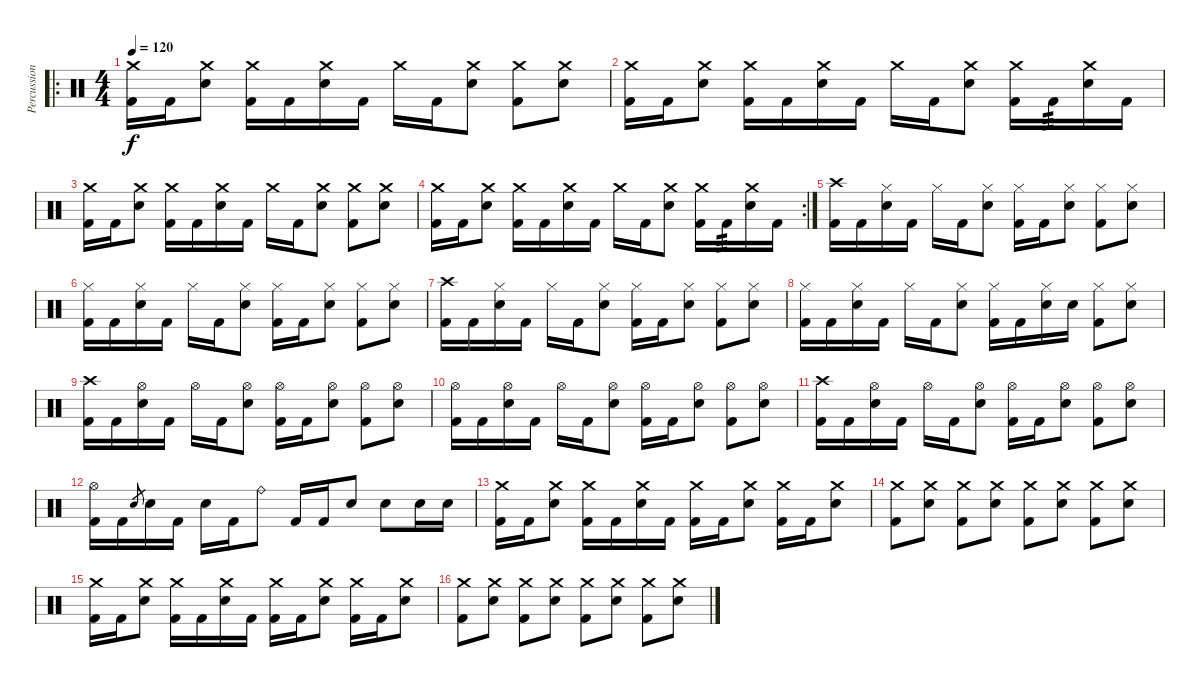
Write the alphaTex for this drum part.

\track ("Percussion" "Percussion") {instrument percussion}
\staff {score}
\articulation defaults
\ro
\ts (4 4)
\tempo 120
\clef neutral
\ks c
("Crash medium (hit)" "Kick (hit) 2").16{dy f} "Kick (hit) 2".16 ("Crash medium (hit)" "Electric Snare (hit)").8 ("Crash medium (hit)" "Kick (hit) 2").16 "Kick (hit) 2".16 ("Crash medium (hit)" "Electric Snare (hit)").16 "Kick (hit) 2".16 "Crash medium (hit)".16 "Kick (hit) 2".16 ("Crash medium (hit)" "Electric Snare (hit)").8 ("Crash medium (hit)" "Kick (hit) 2").8 ("Crash medium (hit)" "Electric Snare (hit)").8 |
("Crash medium (hit)" "Kick (hit) 2").16 "Kick (hit) 2".16 ("Crash medium (hit)" "Electric Snare (hit)").8 ("Crash medium (hit)" "Kick (hit) 2").16 "Kick (hit) 2".16 ("Crash medium (hit)" "Electric Snare (hit)").16 "Kick (hit) 2".16 "Crash medium (hit)".16 "Kick (hit) 2".16 ("Crash medium (hit)" "Electric Snare (hit)").8 ("Crash medium (hit)" "Kick (hit) 2").16 "Kick (hit) 2".16{tp 3} ("Crash medium (hit)" "Electric Snare (hit)").16 "Kick (hit) 2".16 |
("Crash medium (hit)" "Kick (hit) 2").16 "Kick (hit) 2".16 ("Crash medium (hit)" "Electric Snare (hit)").8 ("Crash medium (hit)" "Kick (hit) 2").16 "Kick (hit) 2".16 ("Crash medium (hit)" "Electric Snare (hit)").16 "Kick (hit) 2".16 "Crash medium (hit)".16 "Kick (hit) 2".16 ("Crash medium (hit)" "Electric Snare (hit)").8 ("Crash medium (hit)" "Kick (hit) 2").8 ("Crash medium (hit)" "Electric Snare (hit)").8 |
\rc 2
("Crash medium (hit)" "Kick (hit) 2").16 "Kick (hit) 2".16 ("Crash medium (hit)" "Electric Snare (hit)").8 ("Crash medium (hit)" "Kick (hit) 2").16 "Kick (hit) 2".16 ("Crash medium (hit)" "Electric Snare (hit)").16 "Kick (hit) 2".16 "Crash medium (hit)".16 "Kick (hit) 2".16 ("Crash medium (hit)" "Electric Snare (hit)").8 ("Crash medium (hit)" "Kick (hit) 2").16 "Kick (hit) 2".16{tp 3} ("Crash medium (hit)" "Electric Snare (hit)").16 "Kick (hit) 2".16 |
("Crash high (hit)" "Kick (hit) 2").16 "Kick (hit) 2".16 ("Hi-Hat (closed)" "Electric Snare (hit)").16 "Kick (hit) 2".16 "Hi-Hat (closed)".16 "Kick (hit) 2".16 ("Hi-Hat (closed)" "Electric Snare (hit)").8 ("Hi-Hat (closed)" "Kick (hit) 2").16 "Kick (hit) 2".16 ("Hi-Hat (closed)" "Electric Snare (hit)").8 ("Hi-Hat (closed)" "Kick (hit) 2").8 ("Hi-Hat (closed)" "Electric Snare (hit)").8 |
("Hi-Hat (closed)" "Kick (hit) 2").16 "Kick (hit) 2".16 ("Hi-Hat (closed)" "Electric Snare (hit)").16 "Kick (hit) 2".16 "Hi-Hat (closed)".16 "Kick (hit) 2".16 ("Hi-Hat (closed)" "Electric Snare (hit)").8 ("Hi-Hat (closed)" "Kick (hit) 2").16 "Kick (hit) 2".16 ("Hi-Hat (closed)" "Electric Snare (hit)").8 ("Hi-Hat (closed)" "Kick (hit) 2").8 ("Hi-Hat (closed)" "Electric Snare (hit)").8 |
("Crash high (hit)" "Kick (hit) 2").16 "Kick (hit) 2".16 ("Hi-Hat (closed)" "Electric Snare (hit)").16 "Kick (hit) 2".16 "Hi-Hat (closed)".16 "Kick (hit) 2".16 ("Hi-Hat (closed)" "Electric Snare (hit)").8 ("Hi-Hat (closed)" "Kick (hit) 2").16 "Kick (hit) 2".16 ("Hi-Hat (closed)" "Electric Snare (hit)").8 ("Hi-Hat (closed)" "Kick (hit) 2").8 ("Hi-Hat (closed)" "Electric Snare (hit)").8 |
("Hi-Hat (closed)" "Kick (hit) 2").16 "Kick (hit) 2".16 ("Hi-Hat (closed)" "Electric Snare (hit)").16 "Kick (hit) 2".16 "Hi-Hat (closed)".16 "Kick (hit) 2".16 ("Hi-Hat (closed)" "Electric Snare (hit)").8 ("Hi-Hat (closed)" "Kick (hit) 2").16 "Kick (hit) 2".16 ("Hi-Hat (closed)" "Electric Snare (hit)").16 "Electric Snare (hit)".16 ("Hi-Hat (closed)" "Kick (hit) 2").8 ("Hi-Hat (closed)" "Electric Snare (hit)").8 |
("Crash high (hit)" "Kick (hit) 2").16 "Kick (hit) 2".16 ("Hi-Hat (open)" "Electric Snare (hit)").16 "Kick (hit) 2".16 "Hi-Hat (open)".16 "Kick (hit) 2".16 ("Hi-Hat (open)" "Electric Snare (hit)").8 ("Hi-Hat (open)" "Kick (hit) 2").16 "Kick (hit) 2".16 ("Hi-Hat (open)" "Electric Snare (hit)").8 ("Hi-Hat (open)" "Kick (hit) 2").8 ("Hi-Hat (open)" "Electric Snare (hit)").8 |
("Hi-Hat (open)" "Kick (hit) 2").16 "Kick (hit) 2".16 ("Hi-Hat (open)" "Electric Snare (hit)").16 "Kick (hit) 2".16 "Hi-Hat (open)".16 "Kick (hit) 2".16 ("Hi-Hat (open)" "Electric Snare (hit)").8 ("Hi-Hat (open)" "Kick (hit) 2").16 "Kick (hit) 2".16 ("Hi-Hat (open)" "Electric Snare (hit)").8 ("Hi-Hat (open)" "Kick (hit) 2").8 ("Hi-Hat (open)" "Electric Snare (hit)").8 |
("Crash high (hit)" "Kick (hit) 2").16 "Kick (hit) 2".16 ("Hi-Hat (open)" "Electric Snare (hit)").16 "Kick (hit) 2".16 "Hi-Hat (open)".16 "Kick (hit) 2".16 ("Hi-Hat (open)" "Electric Snare (hit)").8 ("Hi-Hat (open)" "Kick (hit) 2").16 "Kick (hit) 2".16 ("Hi-Hat (open)" "Electric Snare (hit)").8 ("Hi-Hat (open)" "Kick (hit) 2").8 ("Hi-Hat (open)" "Electric Snare (hit)").8 |
("Hi-Hat (open)" "Kick (hit) 2").16 "Kick (hit) 2".16 "Electric Snare (hit)".8{gr} "Electric Snare (hit)".16 "Kick (hit) 2".16 "Electric Snare (hit)".16 "Kick (hit) 2".16 "Ride (bell)".8 "Kick (hit) 2".16 "Kick (hit) 2".16 "Electric Snare (hit)".8 "Electric Snare (hit)".8 "Electric Snare (hit)".16 "Electric Snare (hit)".16 |
("Crash medium (hit)" "Kick (hit) 2").16 "Kick (hit) 2".16 ("Crash medium (hit)" "Electric Snare (hit)").8 ("Crash medium (hit)" "Kick (hit) 2").16 "Kick (hit) 2".16 ("Crash medium (hit)" "Electric Snare (hit)").16 "Kick (hit) 2".16 ("Crash medium (hit)" "Kick (hit) 2").16 "Kick (hit) 2".16 ("Crash medium (hit)" "Electric Snare (hit)").8 ("Crash medium (hit)" "Kick (hit) 2").16 "Kick (hit) 2".16 ("Crash medium (hit)" "Electric Snare (hit)").8 |
("Crash medium (hit)" "Kick (hit) 2").8 ("Crash medium (hit)" "Electric Snare (hit)").8 ("Crash medium (hit)" "Kick (hit) 2").8 ("Crash medium (hit)" "Electric Snare (hit)").8 ("Crash medium (hit)" "Kick (hit) 2").8 ("Crash medium (hit)" "Electric Snare (hit)").8 ("Crash medium (hit)" "Kick (hit) 2").8 ("Crash medium (hit)" "Electric Snare (hit)").8 |
("Crash medium (hit)" "Kick (hit) 2").16 "Kick (hit) 2".16 ("Crash medium (hit)" "Electric Snare (hit)").8 ("Crash medium (hit)" "Kick (hit) 2").16 "Kick (hit) 2".16 ("Crash medium (hit)" "Electric Snare (hit)").16 "Kick (hit) 2".16 ("Crash medium (hit)" "Kick (hit) 2").16 "Kick (hit) 2".16 ("Crash medium (hit)" "Electric Snare (hit)").8 ("Crash medium (hit)" "Kick (hit) 2").16 "Kick (hit) 2".16 ("Crash medium (hit)" "Electric Snare (hit)").8 |
("Crash medium (hit)" "Kick (hit) 2").8 ("Crash medium (hit)" "Electric Snare (hit)").8 ("Crash medium (hit)" "Kick (hit) 2").8 ("Crash medium (hit)" "Electric Snare (hit)").8 ("Crash medium (hit)" "Kick (hit) 2").8 ("Crash medium (hit)" "Electric Snare (hit)").8 ("Crash medium (hit)" "Kick (hit) 2").8 ("Crash medium (hit)" "Electric Snare (hit)").8
